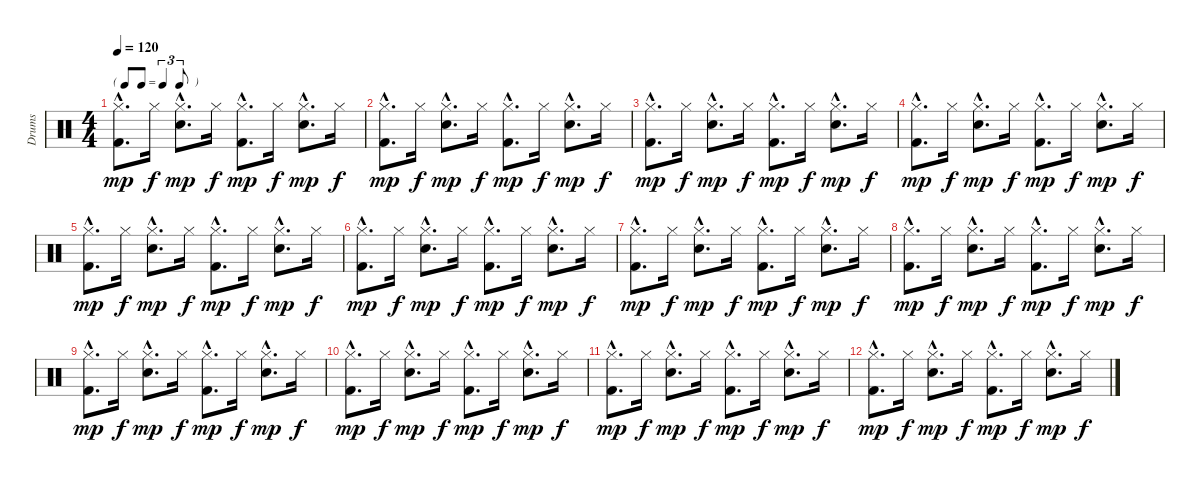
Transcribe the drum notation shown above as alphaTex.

\track ("Drums" "Drums") {instrument percussion}
\staff {score}
\articulation defaults
\ts (4 4)
\tf triplet8th
\tempo 120
\clef neutral
\ks c
("Kick (hit) 2"{hac} "Hi-Hat (closed)"{hac}).8{d dy mp} "Hi-Hat (closed)".16{dy f} ("Snare (hit) 2"{hac} "Hi-Hat (closed)"{hac}).8{d dy mp} "Hi-Hat (closed)".16{dy f} ("Kick (hit) 2"{hac} "Hi-Hat (closed)"{hac}).8{d dy mp} "Hi-Hat (closed)".16{dy f} ("Snare (hit) 2"{hac} "Hi-Hat (closed)"{hac}).8{d dy mp} "Hi-Hat (closed)".16{dy f} |
("Kick (hit) 2"{hac} "Hi-Hat (closed)"{hac}).8{d dy mp} "Hi-Hat (closed)".16{dy f} ("Snare (hit) 2"{hac} "Hi-Hat (closed)"{hac}).8{d dy mp} "Hi-Hat (closed)".16{dy f} ("Kick (hit) 2"{hac} "Hi-Hat (closed)"{hac}).8{d dy mp} "Hi-Hat (closed)".16{dy f} ("Snare (hit) 2"{hac} "Hi-Hat (closed)"{hac}).8{d dy mp} "Hi-Hat (closed)".16{dy f} |
("Kick (hit) 2"{hac} "Hi-Hat (closed)"{hac}).8{d dy mp} "Hi-Hat (closed)".16{dy f} ("Snare (hit) 2"{hac} "Hi-Hat (closed)"{hac}).8{d dy mp} "Hi-Hat (closed)".16{dy f} ("Kick (hit) 2"{hac} "Hi-Hat (closed)"{hac}).8{d dy mp} "Hi-Hat (closed)".16{dy f} ("Snare (hit) 2"{hac} "Hi-Hat (closed)"{hac}).8{d dy mp} "Hi-Hat (closed)".16{dy f} |
("Kick (hit) 2"{hac} "Hi-Hat (closed)"{hac}).8{d dy mp} "Hi-Hat (closed)".16{dy f} ("Snare (hit) 2"{hac} "Hi-Hat (closed)"{hac}).8{d dy mp} "Hi-Hat (closed)".16{dy f} ("Kick (hit) 2"{hac} "Hi-Hat (closed)"{hac}).8{d dy mp} "Hi-Hat (closed)".16{dy f} ("Snare (hit) 2"{hac} "Hi-Hat (closed)"{hac}).8{d dy mp} "Hi-Hat (closed)".16{dy f} |
("Kick (hit) 2"{hac} "Hi-Hat (closed)"{hac}).8{d dy mp} "Hi-Hat (closed)".16{dy f} ("Snare (hit) 2"{hac} "Hi-Hat (closed)"{hac}).8{d dy mp} "Hi-Hat (closed)".16{dy f} ("Kick (hit) 2"{hac} "Hi-Hat (closed)"{hac}).8{d dy mp} "Hi-Hat (closed)".16{dy f} ("Snare (hit) 2"{hac} "Hi-Hat (closed)"{hac}).8{d dy mp} "Hi-Hat (closed)".16{dy f} |
("Kick (hit) 2"{hac} "Hi-Hat (closed)"{hac}).8{d dy mp} "Hi-Hat (closed)".16{dy f} ("Snare (hit) 2"{hac} "Hi-Hat (closed)"{hac}).8{d dy mp} "Hi-Hat (closed)".16{dy f} ("Kick (hit) 2"{hac} "Hi-Hat (closed)"{hac}).8{d dy mp} "Hi-Hat (closed)".16{dy f} ("Snare (hit) 2"{hac} "Hi-Hat (closed)"{hac}).8{d dy mp} "Hi-Hat (closed)".16{dy f} |
("Kick (hit) 2"{hac} "Hi-Hat (closed)"{hac}).8{d dy mp} "Hi-Hat (closed)".16{dy f} ("Snare (hit) 2"{hac} "Hi-Hat (closed)"{hac}).8{d dy mp} "Hi-Hat (closed)".16{dy f} ("Kick (hit) 2"{hac} "Hi-Hat (closed)"{hac}).8{d dy mp} "Hi-Hat (closed)".16{dy f} ("Snare (hit) 2"{hac} "Hi-Hat (closed)"{hac}).8{d dy mp} "Hi-Hat (closed)".16{dy f} |
("Kick (hit) 2"{hac} "Hi-Hat (closed)"{hac}).8{d dy mp} "Hi-Hat (closed)".16{dy f} ("Snare (hit) 2"{hac} "Hi-Hat (closed)"{hac}).8{d dy mp} "Hi-Hat (closed)".16{dy f} ("Kick (hit) 2"{hac} "Hi-Hat (closed)"{hac}).8{d dy mp} "Hi-Hat (closed)".16{dy f} ("Snare (hit) 2"{hac} "Hi-Hat (closed)"{hac}).8{d dy mp} "Hi-Hat (closed)".16{dy f} |
("Kick (hit) 2"{hac} "Hi-Hat (closed)"{hac}).8{d dy mp} "Hi-Hat (closed)".16{dy f} ("Snare (hit) 2"{hac} "Hi-Hat (closed)"{hac}).8{d dy mp} "Hi-Hat (closed)".16{dy f} ("Kick (hit) 2"{hac} "Hi-Hat (closed)"{hac}).8{d dy mp} "Hi-Hat (closed)".16{dy f} ("Snare (hit) 2"{hac} "Hi-Hat (closed)"{hac}).8{d dy mp} "Hi-Hat (closed)".16{dy f} |
("Kick (hit) 2"{hac} "Hi-Hat (closed)"{hac}).8{d dy mp} "Hi-Hat (closed)".16{dy f} ("Snare (hit) 2"{hac} "Hi-Hat (closed)"{hac}).8{d dy mp} "Hi-Hat (closed)".16{dy f} ("Kick (hit) 2"{hac} "Hi-Hat (closed)"{hac}).8{d dy mp} "Hi-Hat (closed)".16{dy f} ("Snare (hit) 2"{hac} "Hi-Hat (closed)"{hac}).8{d dy mp} "Hi-Hat (closed)".16{dy f} |
("Kick (hit) 2"{hac} "Hi-Hat (closed)"{hac}).8{d dy mp} "Hi-Hat (closed)".16{dy f} ("Snare (hit) 2"{hac} "Hi-Hat (closed)"{hac}).8{d dy mp} "Hi-Hat (closed)".16{dy f} ("Kick (hit) 2"{hac} "Hi-Hat (closed)"{hac}).8{d dy mp} "Hi-Hat (closed)".16{dy f} ("Snare (hit) 2"{hac} "Hi-Hat (closed)"{hac}).8{d dy mp} "Hi-Hat (closed)".16{dy f} |
("Kick (hit) 2"{hac} "Hi-Hat (closed)"{hac}).8{d dy mp} "Hi-Hat (closed)".16{dy f} ("Snare (hit) 2"{hac} "Hi-Hat (closed)"{hac}).8{d dy mp} "Hi-Hat (closed)".16{dy f} ("Kick (hit) 2"{hac} "Hi-Hat (closed)"{hac}).8{d dy mp} "Hi-Hat (closed)".16{dy f} ("Snare (hit) 2"{hac} "Hi-Hat (closed)"{hac}).8{d dy mp} "Hi-Hat (closed)".16{dy f}
